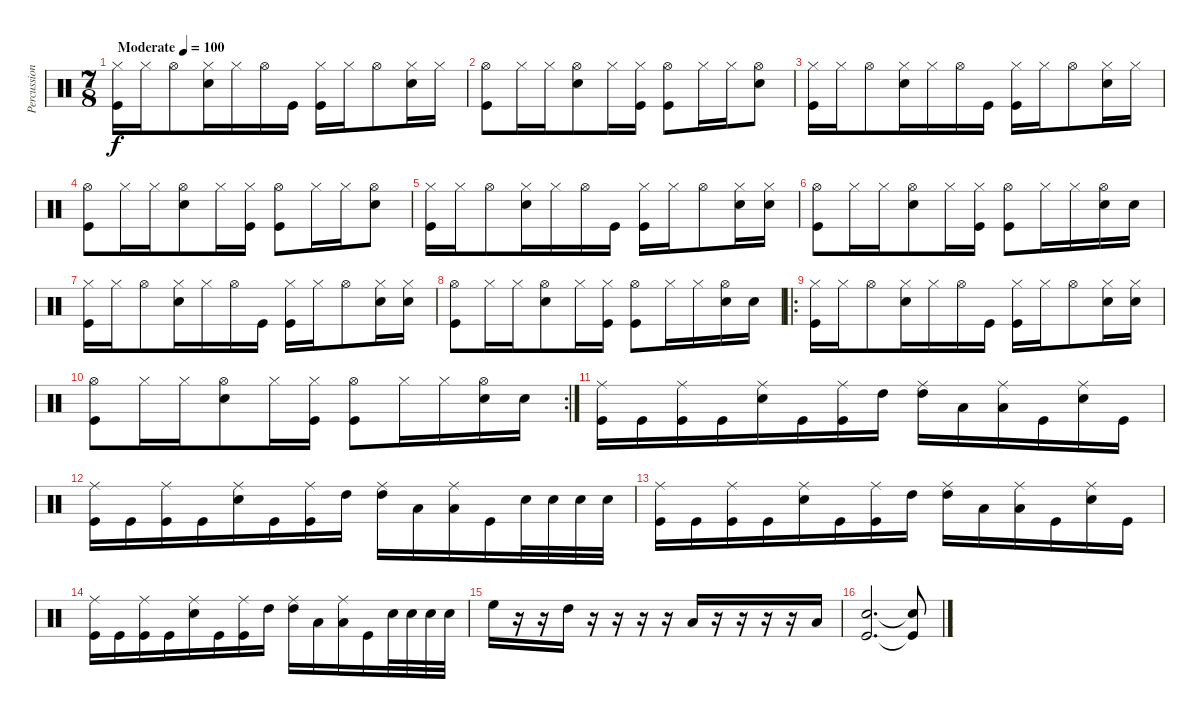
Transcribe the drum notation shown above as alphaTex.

\track ("Percussion" "Percussion") {instrument percussion}
\staff {score}
\articulation defaults
\ts (7 8)
\tempo (100 "Moderate")
\clef neutral
\ks c
("Hi-Hat (closed)" "Kick (hit)").16{dy f} "Hi-Hat (closed)".16 "Hi-Hat (open)".8 ("Hi-Hat (closed)" "Snare (hit) 2").16 "Hi-Hat (closed)".16 "Hi-Hat (open)".16 "Kick (hit)".16 ("Hi-Hat (closed)" "Kick (hit)").16 "Hi-Hat (closed)".16 "Hi-Hat (open)".8 ("Hi-Hat (closed)" "Snare (hit) 2").16 "Hi-Hat (closed)".16 |
("Hi-Hat (open)" "Kick (hit)").8 "Hi-Hat (closed)".16 "Hi-Hat (closed)".16 ("Hi-Hat (open)" "Snare (hit) 2").8 "Hi-Hat (closed)".16 ("Hi-Hat (closed)" "Kick (hit)").16 ("Hi-Hat (open)" "Kick (hit)").8 "Hi-Hat (closed)".16 "Hi-Hat (closed)".16 ("Hi-Hat (open)" "Snare (hit) 2").8 |
("Hi-Hat (closed)" "Kick (hit)").16 "Hi-Hat (closed)".16 "Hi-Hat (open)".8 ("Hi-Hat (closed)" "Snare (hit) 2").16 "Hi-Hat (closed)".16 "Hi-Hat (open)".16 "Kick (hit)".16 ("Hi-Hat (closed)" "Kick (hit)").16 "Hi-Hat (closed)".16 "Hi-Hat (open)".8 ("Hi-Hat (closed)" "Snare (hit) 2").16 "Hi-Hat (closed)".16 |
("Hi-Hat (open)" "Kick (hit)").8 "Hi-Hat (closed)".16 "Hi-Hat (closed)".16 ("Hi-Hat (open)" "Snare (hit) 2").8 "Hi-Hat (closed)".16 ("Hi-Hat (closed)" "Kick (hit)").16 ("Hi-Hat (open)" "Kick (hit)").8 "Hi-Hat (closed)".16 "Hi-Hat (closed)".16 ("Hi-Hat (open)" "Snare (hit) 2").8 |
("Hi-Hat (closed)" "Kick (hit)").16 "Hi-Hat (closed)".16 "Hi-Hat (open)".8 ("Hi-Hat (closed)" "Snare (hit) 2").16 "Hi-Hat (closed)".16 "Hi-Hat (open)".16 "Kick (hit)".16 ("Hi-Hat (closed)" "Kick (hit)").16 "Hi-Hat (closed)".16 "Hi-Hat (open)".8 ("Hi-Hat (closed)" "Snare (hit) 2").16 ("Hi-Hat (closed)" "Snare (hit) 2").16 |
("Hi-Hat (open)" "Kick (hit)").8 "Hi-Hat (closed)".16 "Hi-Hat (closed)".16 ("Hi-Hat (open)" "Snare (hit) 2").8 "Hi-Hat (closed)".16 ("Hi-Hat (closed)" "Kick (hit)").16 ("Hi-Hat (open)" "Kick (hit)").8 "Hi-Hat (closed)".16 "Hi-Hat (closed)".16 ("Hi-Hat (open)" "Snare (hit) 2").16 "Snare (hit) 2".16 |
("Hi-Hat (closed)" "Kick (hit)").16 "Hi-Hat (closed)".16 "Hi-Hat (open)".8 ("Hi-Hat (closed)" "Snare (hit) 2").16 "Hi-Hat (closed)".16 "Hi-Hat (open)".16 "Kick (hit)".16 ("Hi-Hat (closed)" "Kick (hit)").16 "Hi-Hat (closed)".16 "Hi-Hat (open)".8 ("Hi-Hat (closed)" "Snare (hit) 2").16 ("Hi-Hat (closed)" "Snare (hit) 2").16 |
("Hi-Hat (open)" "Kick (hit)").8 "Hi-Hat (closed)".16 "Hi-Hat (closed)".16 ("Hi-Hat (open)" "Snare (hit) 2").8 "Hi-Hat (closed)".16 ("Hi-Hat (closed)" "Kick (hit)").16 ("Hi-Hat (open)" "Kick (hit)").8 "Hi-Hat (closed)".16 "Hi-Hat (closed)".16 ("Hi-Hat (open)" "Snare (hit) 2").16 "Snare (hit) 2".16 |
\ro
("Hi-Hat (closed)" "Kick (hit)").16 "Hi-Hat (closed)".16 "Hi-Hat (open)".8 ("Hi-Hat (closed)" "Snare (hit) 2").16 "Hi-Hat (closed)".16 "Hi-Hat (open)".16 "Kick (hit)".16 ("Hi-Hat (closed)" "Kick (hit)").16 "Hi-Hat (closed)".16 "Hi-Hat (open)".8 ("Hi-Hat (closed)" "Snare (hit) 2").16 ("Hi-Hat (closed)" "Snare (hit) 2").16 |
\rc 2
("Hi-Hat (open)" "Kick (hit)").8 "Hi-Hat (closed)".16 "Hi-Hat (closed)".16 ("Hi-Hat (open)" "Snare (hit) 2").8 "Hi-Hat (closed)".16 ("Hi-Hat (closed)" "Kick (hit)").16 ("Hi-Hat (open)" "Kick (hit)").8 "Hi-Hat (closed)".16 "Hi-Hat (closed)".16 ("Hi-Hat (open)" "Snare (hit) 2").16 "Snare (hit) 2".16 |
("Ride (middle)" "Kick (hit)").16 "Kick (hit)".16 ("Ride (middle)" "Kick (hit)").16 "Kick (hit)".16 ("Ride (middle)" "Snare (hit) 2").16 "Kick (hit)".16 ("Ride (middle)" "Kick (hit)").16 "High Tom (hit)".16 ("Ride (middle)" "High Tom (hit)").16 "Low Tom (hit)".16 ("Ride (middle)" "Low Tom (hit)").16 "Kick (hit)".16 ("Ride (middle)" "Snare (hit) 2").16 "Kick (hit)".16 |
("Ride (middle)" "Kick (hit)").16 "Kick (hit)".16 ("Ride (middle)" "Kick (hit)").16 "Kick (hit)".16 ("Ride (middle)" "Snare (hit) 2").16 "Kick (hit)".16 ("Ride (middle)" "Kick (hit)").16 "High Tom (hit)".16 ("Ride (middle)" "High Tom (hit)").16 "Low Tom (hit)".16 ("Ride (middle)" "Low Tom (hit)").16 "Kick (hit)".16 "Snare (hit) 2".32 "Snare (hit) 2".32 "Snare (hit) 2".32 "Snare (hit) 2".32 |
("Ride (middle)" "Kick (hit)").16 "Kick (hit)".16 ("Ride (middle)" "Kick (hit)").16 "Kick (hit)".16 ("Ride (middle)" "Snare (hit) 2").16 "Kick (hit)".16 ("Ride (middle)" "Kick (hit)").16 "High Tom (hit)".16 ("Ride (middle)" "High Tom (hit)").16 "Low Tom (hit)".16 ("Ride (middle)" "Low Tom (hit)").16 "Kick (hit)".16 ("Ride (middle)" "Snare (hit) 2").16 "Kick (hit)".16 |
("Ride (middle)" "Kick (hit)").16 "Kick (hit)".16 ("Ride (middle)" "Kick (hit)").16 "Kick (hit)".16 ("Ride (middle)" "Snare (hit) 2").16 "Kick (hit)".16 ("Ride (middle)" "Kick (hit)").16 "High Tom (hit)".16 ("Ride (middle)" "High Tom (hit)").16 "Low Tom (hit)".16 ("Ride (middle)" "Low Tom (hit)").16 "Kick (hit)".16 "Snare (hit) 2".32 "Snare (hit) 2".32 "Snare (hit) 2".32 "Snare (hit) 2".32 |
"High Floor Tom (hit)".16 r.16 r.16 "High Tom (hit)".16 r.16 r.16 r.16 r.16 "Low Tom (hit)".16 r.16 r.16 r.16 r.16 "Low Floor Tom (hit)".16 |
("Snare (hit) 2" "Kick (hit)").2{d} ("Snare (hit) 2"{t} "Kick (hit)"{t}).8
